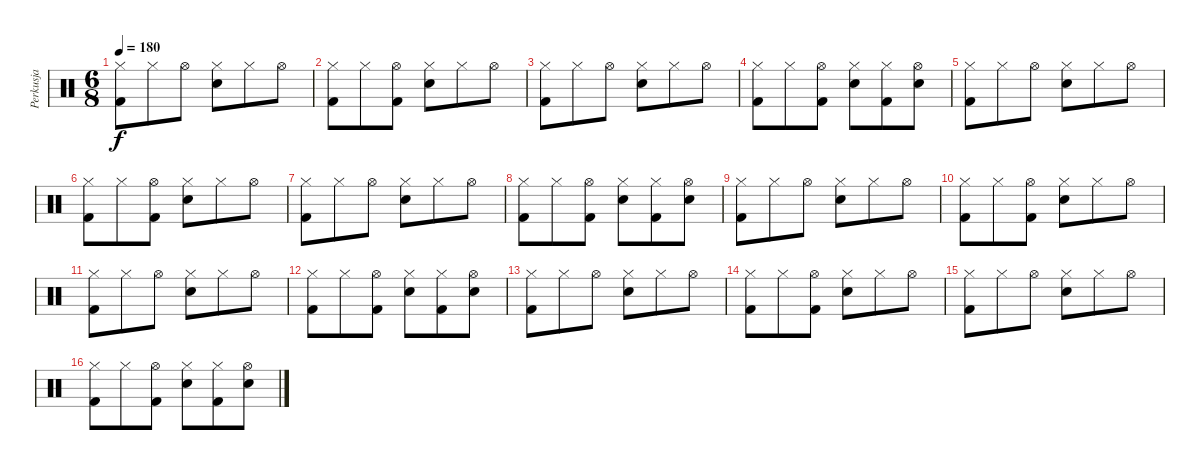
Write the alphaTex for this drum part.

\track ("Perkusja" "Perkusja") {instrument percussion}
\staff {score}
\articulation defaults
\ts (6 8)
\tempo 180
\clef neutral
\ks c
("Hi-Hat (closed)" "Kick (hit) 2").8{dy f} "Hi-Hat (closed)".8 "Hi-Hat (open)".8 ("Hi-Hat (closed)" "Snare (hit) 2").8 "Hi-Hat (closed)".8 "Hi-Hat (open)".8 |
("Hi-Hat (closed)" "Kick (hit) 2").8 "Hi-Hat (closed)".8 ("Hi-Hat (open)" "Kick (hit) 2").8 ("Hi-Hat (closed)" "Snare (hit) 2").8 "Hi-Hat (closed)".8 "Hi-Hat (open)".8 |
("Hi-Hat (closed)" "Kick (hit) 2").8 "Hi-Hat (closed)".8 "Hi-Hat (open)".8 ("Hi-Hat (closed)" "Snare (hit) 2").8 "Hi-Hat (closed)".8 "Hi-Hat (open)".8 |
("Hi-Hat (closed)" "Kick (hit) 2").8 "Hi-Hat (closed)".8 ("Hi-Hat (open)" "Kick (hit) 2").8 ("Hi-Hat (closed)" "Snare (hit) 2").8 ("Hi-Hat (closed)" "Kick (hit) 2").8 ("Hi-Hat (open)" "Snare (hit) 2").8 |
("Hi-Hat (closed)" "Kick (hit) 2").8 "Hi-Hat (closed)".8 "Hi-Hat (open)".8 ("Hi-Hat (closed)" "Snare (hit) 2").8 "Hi-Hat (closed)".8 "Hi-Hat (open)".8 |
("Hi-Hat (closed)" "Kick (hit) 2").8 "Hi-Hat (closed)".8 ("Hi-Hat (open)" "Kick (hit) 2").8 ("Hi-Hat (closed)" "Snare (hit) 2").8 "Hi-Hat (closed)".8 "Hi-Hat (open)".8 |
("Hi-Hat (closed)" "Kick (hit) 2").8 "Hi-Hat (closed)".8 "Hi-Hat (open)".8 ("Hi-Hat (closed)" "Snare (hit) 2").8 "Hi-Hat (closed)".8 "Hi-Hat (open)".8 |
("Hi-Hat (closed)" "Kick (hit) 2").8 "Hi-Hat (closed)".8 ("Hi-Hat (open)" "Kick (hit) 2").8 ("Hi-Hat (closed)" "Snare (hit) 2").8 ("Hi-Hat (closed)" "Kick (hit) 2").8 ("Hi-Hat (open)" "Snare (hit) 2").8 |
("Hi-Hat (closed)" "Kick (hit) 2").8 "Hi-Hat (closed)".8 "Hi-Hat (open)".8 ("Hi-Hat (closed)" "Snare (hit) 2").8 "Hi-Hat (closed)".8 "Hi-Hat (open)".8 |
("Hi-Hat (closed)" "Kick (hit) 2").8 "Hi-Hat (closed)".8 ("Hi-Hat (open)" "Kick (hit) 2").8 ("Hi-Hat (closed)" "Snare (hit) 2").8 "Hi-Hat (closed)".8 "Hi-Hat (open)".8 |
("Hi-Hat (closed)" "Kick (hit) 2").8 "Hi-Hat (closed)".8 "Hi-Hat (open)".8 ("Hi-Hat (closed)" "Snare (hit) 2").8 "Hi-Hat (closed)".8 "Hi-Hat (open)".8 |
("Hi-Hat (closed)" "Kick (hit) 2").8 "Hi-Hat (closed)".8 ("Hi-Hat (open)" "Kick (hit) 2").8 ("Hi-Hat (closed)" "Snare (hit) 2").8 ("Hi-Hat (closed)" "Kick (hit) 2").8 ("Hi-Hat (open)" "Snare (hit) 2").8 |
("Hi-Hat (closed)" "Kick (hit) 2").8 "Hi-Hat (closed)".8 "Hi-Hat (open)".8 ("Hi-Hat (closed)" "Snare (hit) 2").8 "Hi-Hat (closed)".8 "Hi-Hat (open)".8 |
("Hi-Hat (closed)" "Kick (hit) 2").8 "Hi-Hat (closed)".8 ("Hi-Hat (open)" "Kick (hit) 2").8 ("Hi-Hat (closed)" "Snare (hit) 2").8 "Hi-Hat (closed)".8 "Hi-Hat (open)".8 |
("Hi-Hat (closed)" "Kick (hit) 2").8 "Hi-Hat (closed)".8 "Hi-Hat (open)".8 ("Hi-Hat (closed)" "Snare (hit) 2").8 "Hi-Hat (closed)".8 "Hi-Hat (open)".8 |
("Hi-Hat (closed)" "Kick (hit) 2").8 "Hi-Hat (closed)".8 ("Hi-Hat (open)" "Kick (hit) 2").8 ("Hi-Hat (closed)" "Snare (hit) 2").8 ("Hi-Hat (closed)" "Kick (hit) 2").8 ("Hi-Hat (open)" "Snare (hit) 2").8
